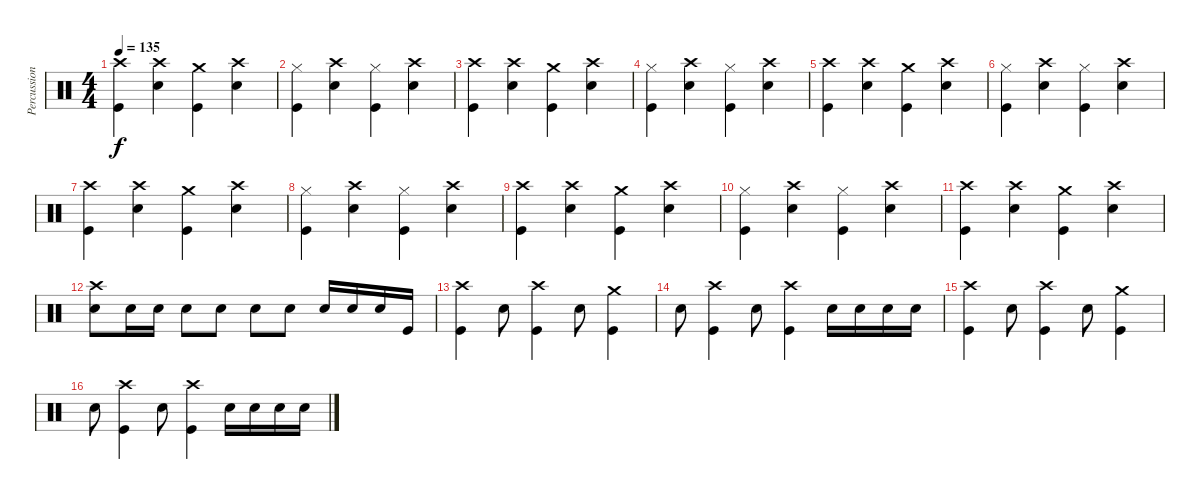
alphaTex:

\track ("Percussions" "Percussion") {instrument percussion}
\staff {score}
\articulation defaults
\ts (4 4)
\tempo 135
\clef neutral
\ks c
("Kick (hit)" "Crash high (hit)").4{dy f} ("Crash high (hit)" "Snare (hit) 2").4 ("Kick (hit)" "Crash medium (hit)").4 ("Crash high (hit)" "Snare (hit) 2").4 |
("Kick (hit)" "Hi-Hat (closed)").4 ("Crash high (hit)" "Snare (hit) 2").4 ("Kick (hit)" "Hi-Hat (closed)").4 ("Snare (hit) 2" "Crash high (hit)").4 |
("Kick (hit)" "Crash high (hit)").4 ("Crash high (hit)" "Snare (hit) 2").4 ("Kick (hit)" "Crash medium (hit)").4 ("Crash high (hit)" "Snare (hit) 2").4 |
("Kick (hit)" "Hi-Hat (closed)").4 ("Crash high (hit)" "Snare (hit) 2").4 ("Kick (hit)" "Hi-Hat (closed)").4 ("Snare (hit) 2" "Crash high (hit)").4 |
("Kick (hit)" "Crash high (hit)").4 ("Crash high (hit)" "Snare (hit) 2").4 ("Kick (hit)" "Crash medium (hit)").4 ("Crash high (hit)" "Snare (hit) 2").4 |
("Kick (hit)" "Hi-Hat (closed)").4 ("Crash high (hit)" "Snare (hit) 2").4 ("Kick (hit)" "Hi-Hat (closed)").4 ("Snare (hit) 2" "Crash high (hit)").4 |
("Kick (hit)" "Crash high (hit)").4 ("Crash high (hit)" "Snare (hit) 2").4 ("Kick (hit)" "Crash medium (hit)").4 ("Crash high (hit)" "Snare (hit) 2").4 |
("Kick (hit)" "Hi-Hat (closed)").4 ("Crash high (hit)" "Snare (hit) 2").4 ("Kick (hit)" "Hi-Hat (closed)").4 ("Snare (hit) 2" "Crash high (hit)").4 |
("Kick (hit)" "Crash high (hit)").4 ("Crash high (hit)" "Snare (hit) 2").4 ("Kick (hit)" "Crash medium (hit)").4 ("Crash high (hit)" "Snare (hit) 2").4 |
("Kick (hit)" "Hi-Hat (closed)").4 ("Crash high (hit)" "Snare (hit) 2").4 ("Kick (hit)" "Hi-Hat (closed)").4 ("Snare (hit) 2" "Crash high (hit)").4 |
("Kick (hit)" "Crash high (hit)").4 ("Crash high (hit)" "Snare (hit) 2").4 ("Kick (hit)" "Crash medium (hit)").4 ("Crash high (hit)" "Snare (hit) 2").4 |
("Snare (hit) 2" "Crash high (hit)").8 "Snare (hit) 2".16 "Snare (hit) 2".16 "Snare (hit) 2".8 "Snare (hit) 2".8 "Snare (hit) 2".8 "Snare (hit) 2".8 "Snare (hit) 2".16 "Snare (hit) 2".16 "Snare (hit) 2".16 "Kick (hit)".16 |
("Kick (hit)" "Crash high (hit)").4 "Snare (hit) 2".8 ("Kick (hit)" "Crash high (hit)").4 "Snare (hit) 2".8 ("Crash medium (hit)" "Kick (hit)").4 |
"Snare (hit) 2".8 ("Kick (hit)" "Crash high (hit)").4 "Snare (hit) 2".8 ("Kick (hit)" "Crash high (hit)").4 "Snare (hit) 2".16 "Snare (hit) 2".16 "Snare (hit) 2".16 "Snare (hit) 2".16 |
("Kick (hit)" "Crash high (hit)").4 "Snare (hit) 2".8 ("Kick (hit)" "Crash high (hit)").4 "Snare (hit) 2".8 ("Crash medium (hit)" "Kick (hit)").4 |
"Snare (hit) 2".8 ("Kick (hit)" "Crash high (hit)").4 "Snare (hit) 2".8 ("Kick (hit)" "Crash high (hit)").4 "Snare (hit) 2".16 "Snare (hit) 2".16 "Snare (hit) 2".16 "Snare (hit) 2".16
